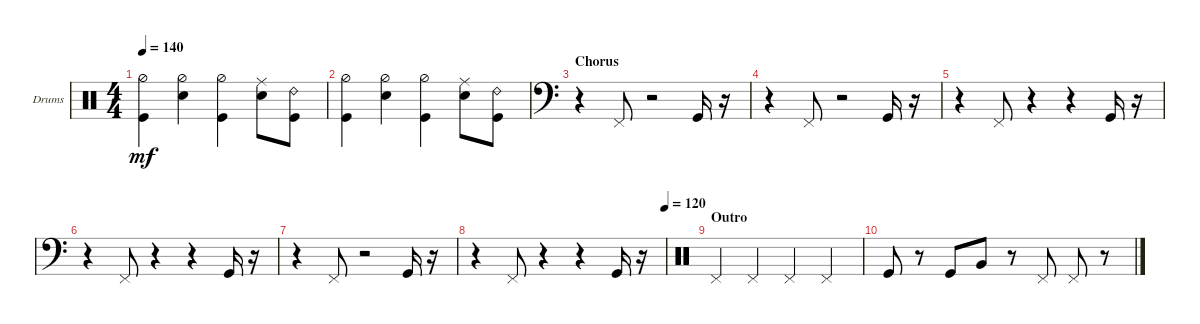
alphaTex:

\defaultSystemsLayout 4
\bracketExtendMode nobrackets
\firstSystemTrackNameOrientation horizontal
\otherSystemsTrackNameOrientation horizontal
\track ("Nazar" "Drums") {instrument percussion}
\staff {score}
\articulation defaults
\ts (4 4)
\tempo 140
\clef neutral
\ks c
("Hi-Hat (half)" "Kick (hit)").4{dy mf} ("Hi-Hat (half)" "Snare (hit) 2").4 ("Hi-Hat (half)" "Kick (hit)").4 ("Ride (middle)" "Snare (hit) 2").8 ("Ride (bell) 2" "Kick (hit)").8 |
("Hi-Hat (half)" "Kick (hit)").4 ("Hi-Hat (half)" "Snare (hit) 2").4 ("Hi-Hat (half)" "Kick (hit)").4 ("Ride (middle)" "Snare (hit) 2").8 ("Ride (bell) 2" "Kick (hit)").8 |
\section ("" "Chorus")
\clef f4
r.4 "Pedal Hi-Hat (hit)".8 r.2 "Kick (hit)".16 r.16 |
r.4 "Pedal Hi-Hat (hit)".8 r.2 "Kick (hit)".16 r.16 |
r.4 "Pedal Hi-Hat (hit)".8 r.4 r.4 "Kick (hit)".16 r.16 |
r.4 "Pedal Hi-Hat (hit)".8 r.4 r.4 "Kick (hit)".16 r.16 |
r.4 "Pedal Hi-Hat (hit)".8 r.2 "Kick (hit)".16 r.16 |
\tempo (120 1)
r.4 "Pedal Hi-Hat (hit)".8 r.4 r.4 "Kick (hit)".16 r.16 |
\section ("" "Outro")
\clef neutral "Pedal Hi-Hat (hit)".4 "Pedal Hi-Hat (hit)".4 "Pedal Hi-Hat (hit)".4 "Pedal Hi-Hat (hit)".4
|
"Kick (hit)".8 r.8 "Kick (hit)".8 "Very Low Tom (hit)".8 r.8 "Pedal Hi-Hat (hit)".8 "Pedal Hi-Hat (hit)".8 r.8
